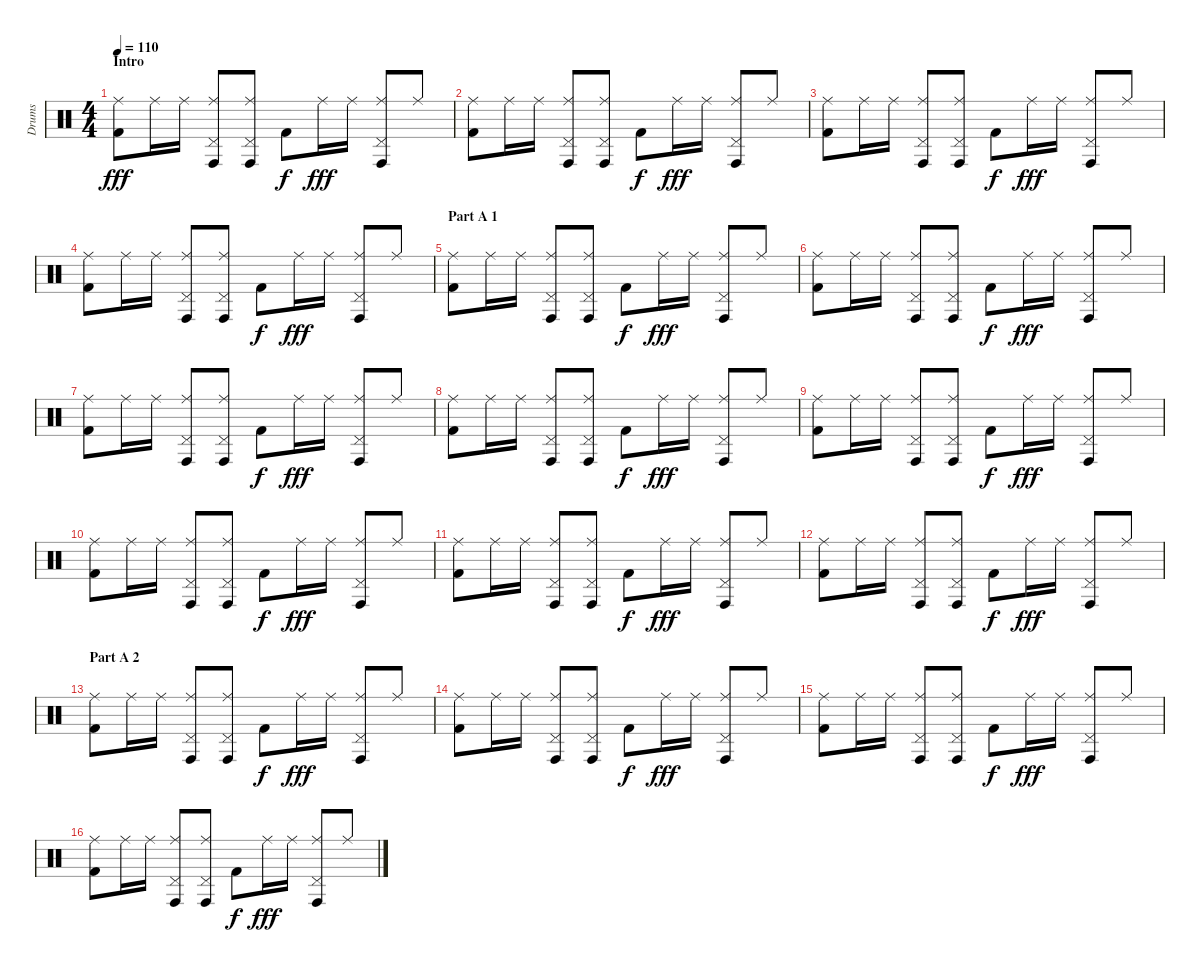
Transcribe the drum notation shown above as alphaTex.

\track ("Drums" "Drums") {instrument percussion}
\staff {score}
\articulation defaults
\ts (4 4)
\section ("" "Intro")
\tempo 110
\clef neutral
\ks c
("Ride (middle)" "Kick (hit) 2").8{dy fff} "Ride (middle)".16 "Ride (middle)".16 ("Ride (middle)" "Pedal Hi-Hat (hit)" "Conga high (hit)").8 ("Ride (middle)" "Pedal Hi-Hat (hit)" "Conga high (hit)").8 "Kick (hit) 2".8{dy f} "Ride (middle)".16{dy fff} "Ride (middle)".16 ("Ride (middle)" "Pedal Hi-Hat (hit)" "Conga high (hit)").8 "Ride (middle)".8 |
("Ride (middle)" "Kick (hit) 2").8 "Ride (middle)".16 "Ride (middle)".16 ("Ride (middle)" "Pedal Hi-Hat (hit)" "Conga high (hit)").8 ("Ride (middle)" "Pedal Hi-Hat (hit)" "Conga high (hit)").8 "Kick (hit) 2".8{dy f} "Ride (middle)".16{dy fff} "Ride (middle)".16 ("Ride (middle)" "Pedal Hi-Hat (hit)" "Conga high (hit)").8 "Ride (middle)".8 |
("Ride (middle)" "Kick (hit) 2").8 "Ride (middle)".16 "Ride (middle)".16 ("Ride (middle)" "Pedal Hi-Hat (hit)" "Conga high (hit)").8 ("Ride (middle)" "Pedal Hi-Hat (hit)" "Conga high (hit)").8 "Kick (hit) 2".8{dy f} "Ride (middle)".16{dy fff} "Ride (middle)".16 ("Ride (middle)" "Pedal Hi-Hat (hit)" "Conga high (hit)").8 "Ride (middle)".8 |
("Ride (middle)" "Kick (hit) 2").8 "Ride (middle)".16 "Ride (middle)".16 ("Ride (middle)" "Pedal Hi-Hat (hit)" "Conga high (hit)").8 ("Ride (middle)" "Pedal Hi-Hat (hit)" "Conga high (hit)").8 "Kick (hit) 2".8{dy f} "Ride (middle)".16{dy fff} "Ride (middle)".16 ("Ride (middle)" "Pedal Hi-Hat (hit)" "Conga high (hit)").8 "Ride (middle)".8 |
\section ("" "Part A 1")
("Ride (middle)" "Kick (hit) 2").8 "Ride (middle)".16 "Ride (middle)".16 ("Ride (middle)" "Pedal Hi-Hat (hit)" "Conga high (hit)").8 ("Ride (middle)" "Pedal Hi-Hat (hit)" "Conga high (hit)").8 "Kick (hit) 2".8{dy f} "Ride (middle)".16{dy fff} "Ride (middle)".16 ("Ride (middle)" "Pedal Hi-Hat (hit)" "Conga high (hit)").8 "Ride (middle)".8 |
("Ride (middle)" "Kick (hit) 2").8 "Ride (middle)".16 "Ride (middle)".16 ("Ride (middle)" "Pedal Hi-Hat (hit)" "Conga high (hit)").8 ("Ride (middle)" "Pedal Hi-Hat (hit)" "Conga high (hit)").8 "Kick (hit) 2".8{dy f} "Ride (middle)".16{dy fff} "Ride (middle)".16 ("Ride (middle)" "Pedal Hi-Hat (hit)" "Conga high (hit)").8 "Ride (middle)".8 |
("Ride (middle)" "Kick (hit) 2").8 "Ride (middle)".16 "Ride (middle)".16 ("Ride (middle)" "Pedal Hi-Hat (hit)" "Conga high (hit)").8 ("Ride (middle)" "Pedal Hi-Hat (hit)" "Conga high (hit)").8 "Kick (hit) 2".8{dy f} "Ride (middle)".16{dy fff} "Ride (middle)".16 ("Ride (middle)" "Pedal Hi-Hat (hit)" "Conga high (hit)").8 "Ride (middle)".8 |
("Ride (middle)" "Kick (hit) 2").8 "Ride (middle)".16 "Ride (middle)".16 ("Ride (middle)" "Pedal Hi-Hat (hit)" "Conga high (hit)").8 ("Ride (middle)" "Pedal Hi-Hat (hit)" "Conga high (hit)").8 "Kick (hit) 2".8{dy f} "Ride (middle)".16{dy fff} "Ride (middle)".16 ("Ride (middle)" "Pedal Hi-Hat (hit)" "Conga high (hit)").8 "Ride (middle)".8 |
("Ride (middle)" "Kick (hit) 2").8 "Ride (middle)".16 "Ride (middle)".16 ("Ride (middle)" "Pedal Hi-Hat (hit)" "Conga high (hit)").8 ("Ride (middle)" "Pedal Hi-Hat (hit)" "Conga high (hit)").8 "Kick (hit) 2".8{dy f} "Ride (middle)".16{dy fff} "Ride (middle)".16 ("Ride (middle)" "Pedal Hi-Hat (hit)" "Conga high (hit)").8 "Ride (middle)".8 |
("Ride (middle)" "Kick (hit) 2").8 "Ride (middle)".16 "Ride (middle)".16 ("Ride (middle)" "Pedal Hi-Hat (hit)" "Conga high (hit)").8 ("Ride (middle)" "Pedal Hi-Hat (hit)" "Conga high (hit)").8 "Kick (hit) 2".8{dy f} "Ride (middle)".16{dy fff} "Ride (middle)".16 ("Ride (middle)" "Pedal Hi-Hat (hit)" "Conga high (hit)").8 "Ride (middle)".8 |
("Ride (middle)" "Kick (hit) 2").8 "Ride (middle)".16 "Ride (middle)".16 ("Ride (middle)" "Pedal Hi-Hat (hit)" "Conga high (hit)").8 ("Ride (middle)" "Pedal Hi-Hat (hit)" "Conga high (hit)").8 "Kick (hit) 2".8{dy f} "Ride (middle)".16{dy fff} "Ride (middle)".16 ("Ride (middle)" "Pedal Hi-Hat (hit)" "Conga high (hit)").8 "Ride (middle)".8 |
("Ride (middle)" "Kick (hit) 2").8 "Ride (middle)".16 "Ride (middle)".16 ("Ride (middle)" "Pedal Hi-Hat (hit)" "Conga high (hit)").8 ("Ride (middle)" "Pedal Hi-Hat (hit)" "Conga high (hit)").8 "Kick (hit) 2".8{dy f} "Ride (middle)".16{dy fff} "Ride (middle)".16 ("Ride (middle)" "Pedal Hi-Hat (hit)" "Conga high (hit)").8 "Ride (middle)".8 |
\section ("" "Part A 2")
("Ride (middle)" "Kick (hit) 2").8 "Ride (middle)".16 "Ride (middle)".16 ("Ride (middle)" "Pedal Hi-Hat (hit)" "Conga high (hit)").8 ("Ride (middle)" "Pedal Hi-Hat (hit)" "Conga high (hit)").8 "Kick (hit) 2".8{dy f} "Ride (middle)".16{dy fff} "Ride (middle)".16 ("Ride (middle)" "Pedal Hi-Hat (hit)" "Conga high (hit)").8 "Ride (middle)".8 |
("Ride (middle)" "Kick (hit) 2").8 "Ride (middle)".16 "Ride (middle)".16 ("Ride (middle)" "Pedal Hi-Hat (hit)" "Conga high (hit)").8 ("Ride (middle)" "Pedal Hi-Hat (hit)" "Conga high (hit)").8 "Kick (hit) 2".8{dy f} "Ride (middle)".16{dy fff} "Ride (middle)".16 ("Ride (middle)" "Pedal Hi-Hat (hit)" "Conga high (hit)").8 "Ride (middle)".8 |
("Ride (middle)" "Kick (hit) 2").8 "Ride (middle)".16 "Ride (middle)".16 ("Ride (middle)" "Pedal Hi-Hat (hit)" "Conga high (hit)").8 ("Ride (middle)" "Pedal Hi-Hat (hit)" "Conga high (hit)").8 "Kick (hit) 2".8{dy f} "Ride (middle)".16{dy fff} "Ride (middle)".16 ("Ride (middle)" "Pedal Hi-Hat (hit)" "Conga high (hit)").8 "Ride (middle)".8 |
("Ride (middle)" "Kick (hit) 2").8 "Ride (middle)".16 "Ride (middle)".16 ("Ride (middle)" "Pedal Hi-Hat (hit)" "Conga high (hit)").8 ("Ride (middle)" "Pedal Hi-Hat (hit)" "Conga high (hit)").8 "Kick (hit) 2".8{dy f} "Ride (middle)".16{dy fff} "Ride (middle)".16 ("Ride (middle)" "Pedal Hi-Hat (hit)" "Conga high (hit)").8 "Ride (middle)".8
